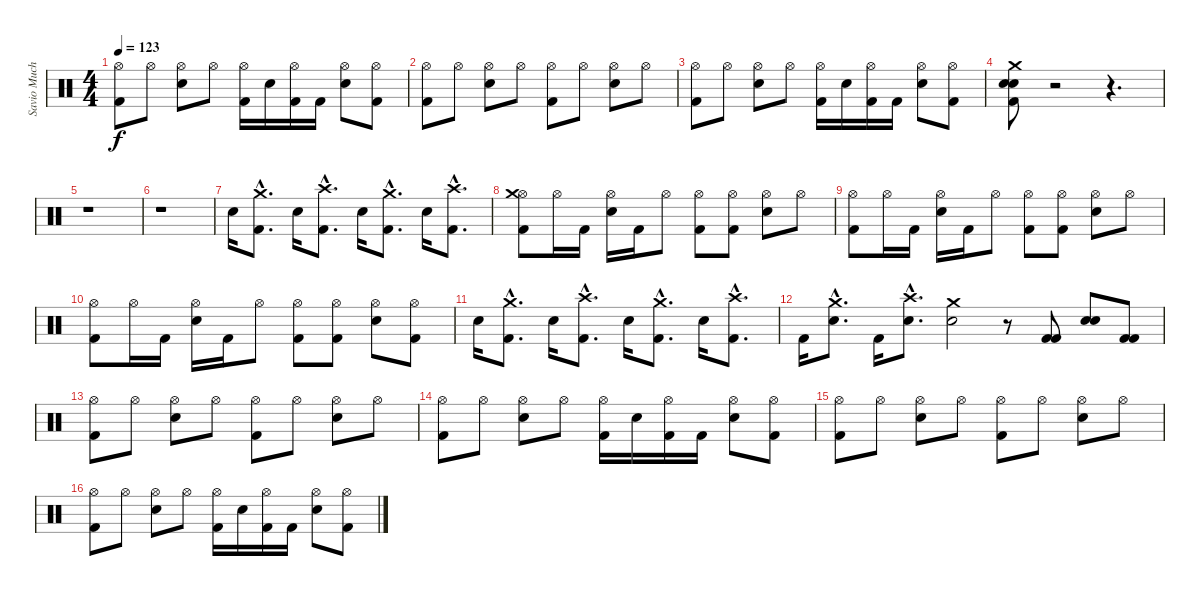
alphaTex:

\track ("Savio Muchacho (Drums)" "Savio Much") {instrument percussion}
\staff {score}
\articulation defaults
\ts (4 4)
\tempo 123
\clef neutral
\ks c
("Hi-Hat (open)" "Kick (hit) 2").8{dy f} "Hi-Hat (open)".8 ("Hi-Hat (open)" "Snare (hit) 2").8 "Hi-Hat (open)".8 ("Hi-Hat (open)" "Kick (hit) 2").16 "Snare (hit) 2".16 ("Hi-Hat (open)" "Kick (hit) 2").16 "Kick (hit) 2".16 ("Hi-Hat (open)" "Snare (hit) 2").8 ("Hi-Hat (open)" "Kick (hit) 2").8 |
("Hi-Hat (open)" "Kick (hit) 2").8 "Hi-Hat (open)".8 ("Hi-Hat (open)" "Snare (hit) 2").8 "Hi-Hat (open)".8 ("Hi-Hat (open)" "Kick (hit) 2").8 "Hi-Hat (open)".8 ("Hi-Hat (open)" "Snare (hit) 2").8 "Hi-Hat (open)".8 |
("Hi-Hat (open)" "Kick (hit) 2").8 "Hi-Hat (open)".8 ("Hi-Hat (open)" "Snare (hit) 2").8 "Hi-Hat (open)".8 ("Hi-Hat (open)" "Kick (hit) 2").16 "Snare (hit) 2".16 ("Hi-Hat (open)" "Kick (hit) 2").16 "Kick (hit) 2".16 ("Hi-Hat (open)" "Snare (hit) 2").8 ("Hi-Hat (open)" "Kick (hit) 2").8 |
("Crash medium (hit)" "Kick (hit) 2" "Snare (hit) 2" "Snare (hit) 2").8 r.2 r.4{d} |
r.1 |
r.1 |
"Snare (hit) 2".16 ("Kick (hit) 2"{hac} "Crash medium (hit)"{hac}).8{d} "Snare (hit) 2".16 ("Kick (hit) 2"{hac} "Crash high (hit)"{hac}).8{d} "Snare (hit) 2".16 ("Kick (hit) 2"{hac} "Crash medium (hit)"{hac}).8{d} "Snare (hit) 2".16 ("Kick (hit) 2"{hac} "Crash high (hit)"{hac}).8{d} |
("Hi-Hat (open)" "Kick (hit) 2" "Crash medium (hit)").8 "Hi-Hat (open)".16 "Kick (hit) 2".16 ("Hi-Hat (open)" "Snare (hit) 2").16 "Kick (hit) 2".16 "Hi-Hat (open)".8 ("Hi-Hat (open)" "Kick (hit) 2").8 ("Hi-Hat (open)" "Kick (hit) 2").8 ("Hi-Hat (open)" "Snare (hit) 2").8 "Hi-Hat (open)".8 |
("Hi-Hat (open)" "Kick (hit) 2").8 "Hi-Hat (open)".16 "Kick (hit) 2".16 ("Hi-Hat (open)" "Snare (hit) 2").16 "Kick (hit) 2".16 "Hi-Hat (open)".8 ("Hi-Hat (open)" "Kick (hit) 2").8 ("Hi-Hat (open)" "Kick (hit) 2").8 ("Hi-Hat (open)" "Snare (hit) 2").8 "Hi-Hat (open)".8 |
("Hi-Hat (open)" "Kick (hit) 2").8 "Hi-Hat (open)".16 "Kick (hit) 2".16 ("Hi-Hat (open)" "Snare (hit) 2").16 "Kick (hit) 2".16 "Hi-Hat (open)".8 ("Hi-Hat (open)" "Kick (hit) 2").8 ("Hi-Hat (open)" "Kick (hit) 2").8 ("Hi-Hat (open)" "Snare (hit) 2").8 ("Hi-Hat (open)" "Kick (hit) 2").8 |
"Snare (hit) 2".16 ("Kick (hit) 2"{hac} "Crash medium (hit)"{hac}).8{d} "Snare (hit) 2".16 ("Kick (hit) 2"{hac} "Crash high (hit)"{hac}).8{d} "Snare (hit) 2".16 ("Kick (hit) 2"{hac} "Crash medium (hit)"{hac}).8{d} "Snare (hit) 2".16 ("Kick (hit) 2"{hac} "Crash high (hit)"{hac}).8{d} |
"Kick (hit) 2".16 ("Snare (hit) 2"{hac} "Crash medium (hit)"{hac}).8{d} "Kick (hit) 2".16 ("Snare (hit) 2"{hac} "Crash high (hit)"{hac}).8{d} ("Snare (hit) 2" "Crash medium (hit)").2 r.8 ("Kick (hit) 2" "Kick (hit) 2").8 ("Snare (hit) 2" "Snare (hit) 2").8 ("Kick (hit) 2" "Kick (hit) 2").8 |
("Hi-Hat (open)" "Kick (hit) 2").8 "Hi-Hat (open)".8 ("Hi-Hat (open)" "Snare (hit) 2").8 "Hi-Hat (open)".8 ("Hi-Hat (open)" "Kick (hit) 2").8 "Hi-Hat (open)".8 ("Hi-Hat (open)" "Snare (hit) 2").8 "Hi-Hat (open)".8 |
("Hi-Hat (open)" "Kick (hit) 2").8 "Hi-Hat (open)".8 ("Hi-Hat (open)" "Snare (hit) 2").8 "Hi-Hat (open)".8 ("Hi-Hat (open)" "Kick (hit) 2").16 "Snare (hit) 2".16 ("Hi-Hat (open)" "Kick (hit) 2").16 "Kick (hit) 2".16 ("Hi-Hat (open)" "Snare (hit) 2").8 ("Hi-Hat (open)" "Kick (hit) 2").8 |
("Hi-Hat (open)" "Kick (hit) 2").8 "Hi-Hat (open)".8 ("Hi-Hat (open)" "Snare (hit) 2").8 "Hi-Hat (open)".8 ("Hi-Hat (open)" "Kick (hit) 2").8 "Hi-Hat (open)".8 ("Hi-Hat (open)" "Snare (hit) 2").8 "Hi-Hat (open)".8 |
("Hi-Hat (open)" "Kick (hit) 2").8 "Hi-Hat (open)".8 ("Hi-Hat (open)" "Snare (hit) 2").8 "Hi-Hat (open)".8 ("Hi-Hat (open)" "Kick (hit) 2").16 "Snare (hit) 2".16 ("Hi-Hat (open)" "Kick (hit) 2").16 "Kick (hit) 2".16 ("Hi-Hat (open)" "Snare (hit) 2").8 ("Hi-Hat (open)" "Kick (hit) 2").8
